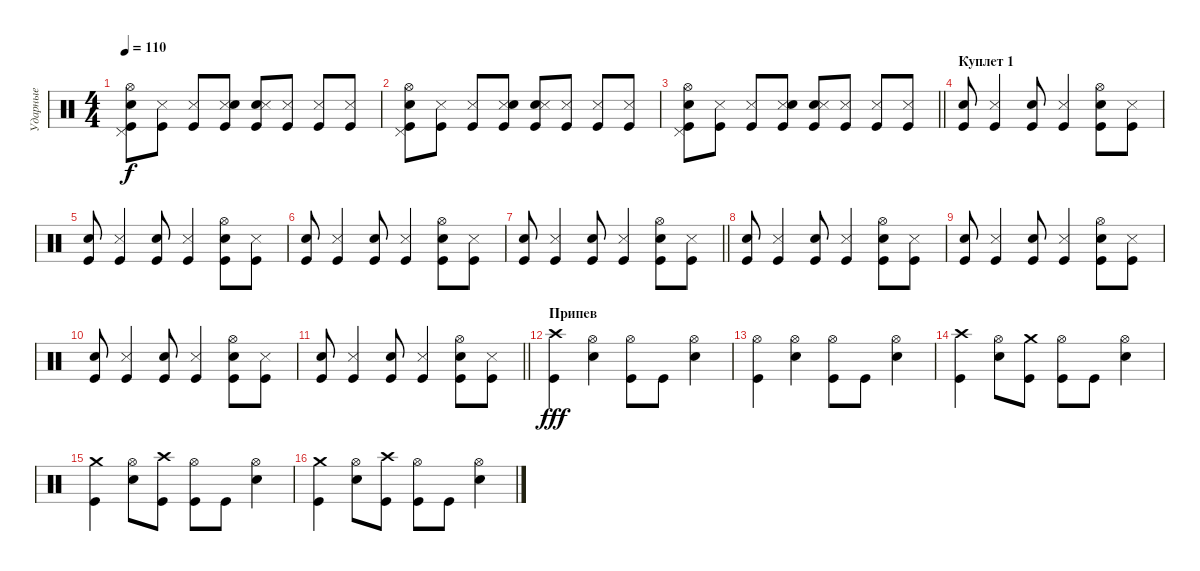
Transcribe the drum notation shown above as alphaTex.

\track ("Ударные" "Ударные") {instrument percussion}
\staff {score}
\articulation defaults
\ts (4 4)
\tempo 110
\clef neutral
\ks c
("Snare (hit) 2" "Kick (hit)" "Pedal Hi-Hat (hit)" "Hi-Hat (open)").8{dy f} ("Kick (hit)" "Snare (side stick) 3").8 ("Snare (side stick) 3" "Kick (hit)").8 ("Kick (hit)" "Snare (side stick) 3" "Snare (hit) 2").8 ("Snare (hit) 2" "Kick (hit)" "Snare (side stick) 3").8 ("Kick (hit)" "Snare (side stick) 3").8 ("Snare (side stick) 3" "Kick (hit)").8 ("Kick (hit)" "Snare (side stick) 3").8 |
("Snare (hit) 2" "Kick (hit)" "Pedal Hi-Hat (hit)" "Hi-Hat (open)").8 ("Kick (hit)" "Snare (side stick) 3").8 ("Snare (side stick) 3" "Kick (hit)").8 ("Kick (hit)" "Snare (side stick) 3" "Snare (hit) 2").8 ("Snare (hit) 2" "Kick (hit)" "Snare (side stick) 3").8 ("Kick (hit)" "Snare (side stick) 3").8 ("Snare (side stick) 3" "Kick (hit)").8 ("Kick (hit)" "Snare (side stick) 3").8 |
\barLineRight lightlight
("Snare (hit) 2" "Kick (hit)" "Pedal Hi-Hat (hit)" "Hi-Hat (open)").8 ("Kick (hit)" "Snare (side stick) 3").8 ("Snare (side stick) 3" "Kick (hit)").8 ("Kick (hit)" "Snare (side stick) 3" "Snare (hit) 2").8 ("Snare (hit) 2" "Kick (hit)" "Snare (side stick) 3").8 ("Kick (hit)" "Snare (side stick) 3").8 ("Snare (side stick) 3" "Kick (hit)").8 ("Kick (hit)" "Snare (side stick) 3").8 |
\section ("" "Куплет 1")
("Snare (hit) 2" "Kick (hit)").8 ("Kick (hit)" "Snare (side stick) 3").4 ("Kick (hit)" "Snare (hit) 2").8 ("Kick (hit)" "Snare (side stick) 3").4 ("Snare (hit) 2" "Kick (hit)" "Hi-Hat (open)").8 ("Kick (hit)" "Snare (side stick) 3").8 |
("Snare (hit) 2" "Kick (hit)").8 ("Kick (hit)" "Snare (side stick) 3").4 ("Kick (hit)" "Snare (hit) 2").8 ("Kick (hit)" "Snare (side stick) 3").4 ("Snare (hit) 2" "Kick (hit)" "Hi-Hat (open)").8 ("Kick (hit)" "Snare (side stick) 3").8 |
("Snare (hit) 2" "Kick (hit)").8 ("Kick (hit)" "Snare (side stick) 3").4 ("Kick (hit)" "Snare (hit) 2").8 ("Kick (hit)" "Snare (side stick) 3").4 ("Snare (hit) 2" "Kick (hit)" "Hi-Hat (open)").8 ("Kick (hit)" "Snare (side stick) 3").8 |
\barLineRight lightlight
("Snare (hit) 2" "Kick (hit)").8 ("Kick (hit)" "Snare (side stick) 3").4 ("Kick (hit)" "Snare (hit) 2").8 ("Kick (hit)" "Snare (side stick) 3").4 ("Snare (hit) 2" "Kick (hit)" "Hi-Hat (open)").8 ("Kick (hit)" "Snare (side stick) 3").8 |
("Snare (hit) 2" "Kick (hit)").8 ("Kick (hit)" "Snare (side stick) 3").4 ("Kick (hit)" "Snare (hit) 2").8 ("Kick (hit)" "Snare (side stick) 3").4 ("Snare (hit) 2" "Kick (hit)" "Hi-Hat (open)").8 ("Kick (hit)" "Snare (side stick) 3").8 |
("Snare (hit) 2" "Kick (hit)").8 ("Kick (hit)" "Snare (side stick) 3").4 ("Kick (hit)" "Snare (hit) 2").8 ("Kick (hit)" "Snare (side stick) 3").4 ("Snare (hit) 2" "Kick (hit)" "Hi-Hat (open)").8 ("Kick (hit)" "Snare (side stick) 3").8 |
("Snare (hit) 2" "Kick (hit)").8 ("Kick (hit)" "Snare (side stick) 3").4 ("Kick (hit)" "Snare (hit) 2").8 ("Kick (hit)" "Snare (side stick) 3").4 ("Snare (hit) 2" "Kick (hit)" "Hi-Hat (open)").8 ("Kick (hit)" "Snare (side stick) 3").8 |
\barLineRight lightlight
("Snare (hit) 2" "Kick (hit)").8 ("Kick (hit)" "Snare (side stick) 3").4 ("Kick (hit)" "Snare (hit) 2").8 ("Kick (hit)" "Snare (side stick) 3").4 ("Snare (hit) 2" "Kick (hit)" "Hi-Hat (open)").8 ("Kick (hit)" "Snare (side stick) 3").8 |
\section ("" "Припев")
("Crash high (hit)" "Kick (hit)").4{dy fff} ("Hi-Hat (open)" "Electric Snare (hit)").4 ("Hi-Hat (open)" "Kick (hit)").8 "Kick (hit)".8 ("Hi-Hat (open)" "Electric Snare (hit)").4 |
("Hi-Hat (open)" "Kick (hit)").4 ("Hi-Hat (open)" "Electric Snare (hit)").4 ("Hi-Hat (open)" "Kick (hit)").8 "Kick (hit)".8 ("Hi-Hat (open)" "Electric Snare (hit)").4 |
("Crash high (hit)" "Kick (hit)").4 ("Hi-Hat (open)" "Electric Snare (hit)").8 ("Crash medium (hit)" "Kick (hit)").8 ("Hi-Hat (open)" "Kick (hit)").8 "Kick (hit)".8 ("Hi-Hat (open)" "Electric Snare (hit)").4 |
("Crash medium (hit)" "Kick (hit)").4 ("Hi-Hat (open)" "Electric Snare (hit)").8 ("Crash high (hit)" "Kick (hit)").8 ("Hi-Hat (open)" "Kick (hit)").8 "Kick (hit)".8 ("Hi-Hat (open)" "Electric Snare (hit)").4 |
("Crash medium (hit)" "Kick (hit)").4 ("Hi-Hat (open)" "Electric Snare (hit)").8 ("Crash high (hit)" "Kick (hit)").8 ("Hi-Hat (open)" "Kick (hit)").8 "Kick (hit)".8 ("Hi-Hat (open)" "Electric Snare (hit)").4
